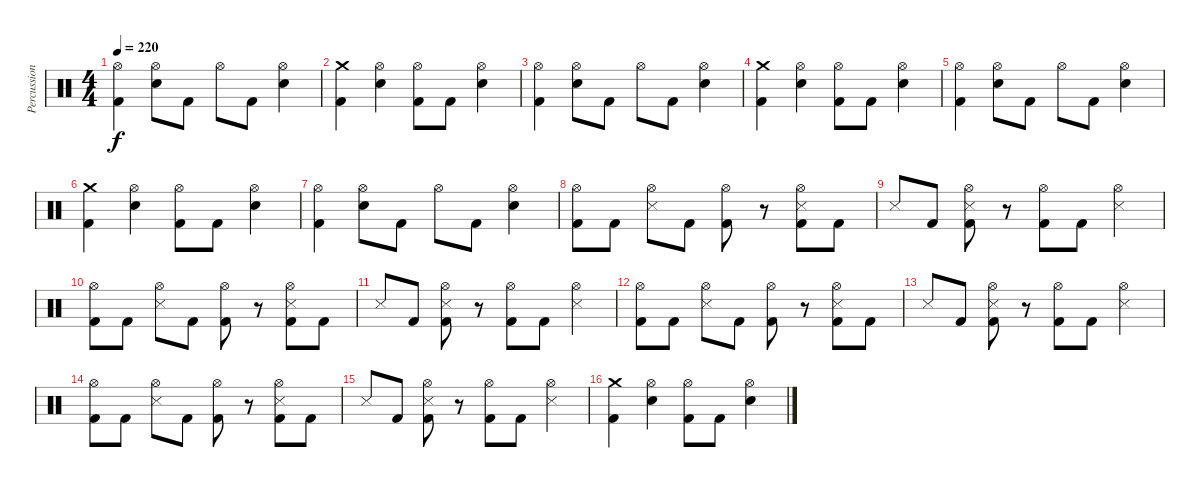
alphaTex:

\track ("Percussions" "Percussion") {instrument percussion}
\staff {score}
\articulation defaults
\ts (4 4)
\tempo 220
\clef neutral
\ks c
("Hi-Hat (open)" "Kick (hit) 2").4{dy f} ("Hi-Hat (open)" "Electric Snare (hit)").8 "Kick (hit) 2".8 "Hi-Hat (open)".8 "Kick (hit) 2".8 ("Hi-Hat (open)" "Electric Snare (hit)").4 |
("Crash medium (hit)" "Kick (hit) 2").4 ("Hi-Hat (open)" "Electric Snare (hit)").4 ("Hi-Hat (open)" "Kick (hit) 2").8 "Kick (hit) 2".8 ("Hi-Hat (open)" "Electric Snare (hit)").4 |
("Hi-Hat (open)" "Kick (hit) 2").4 ("Hi-Hat (open)" "Electric Snare (hit)").8 "Kick (hit) 2".8 "Hi-Hat (open)".8 "Kick (hit) 2".8 ("Hi-Hat (open)" "Electric Snare (hit)").4 |
("Crash medium (hit)" "Kick (hit) 2").4 ("Hi-Hat (open)" "Electric Snare (hit)").4 ("Hi-Hat (open)" "Kick (hit) 2").8 "Kick (hit) 2".8 ("Hi-Hat (open)" "Electric Snare (hit)").4 |
("Hi-Hat (open)" "Kick (hit) 2").4 ("Hi-Hat (open)" "Electric Snare (hit)").8 "Kick (hit) 2".8 "Hi-Hat (open)".8 "Kick (hit) 2".8 ("Hi-Hat (open)" "Electric Snare (hit)").4 |
("Crash medium (hit)" "Kick (hit) 2").4 ("Hi-Hat (open)" "Electric Snare (hit)").4 ("Hi-Hat (open)" "Kick (hit) 2").8 "Kick (hit) 2".8 ("Hi-Hat (open)" "Electric Snare (hit)").4 |
("Hi-Hat (open)" "Kick (hit) 2").4 ("Hi-Hat (open)" "Electric Snare (hit)").8 "Kick (hit) 2".8 "Hi-Hat (open)".8 "Kick (hit) 2".8 ("Hi-Hat (open)" "Electric Snare (hit)").4 |
("Hi-Hat (open)" "Kick (hit) 2").8 "Kick (hit) 2".8 ("Hi-Hat (open)" "Snare (side stick) 3").8 "Kick (hit) 2".8 ("Hi-Hat (open)" "Kick (hit) 2").8 r.8 ("Hi-Hat (open)" "Snare (side stick) 3" "Kick (hit) 2").8 "Kick (hit) 2".8 |
"Snare (side stick) 3".8 "Kick (hit) 2".8 ("Hi-Hat (open)" "Snare (side stick) 3" "Kick (hit) 2").8 r.8 ("Hi-Hat (open)" "Kick (hit) 2").8 "Kick (hit) 2".8 ("Hi-Hat (open)" "Snare (side stick) 3").4 |
("Hi-Hat (open)" "Kick (hit) 2").8 "Kick (hit) 2".8 ("Hi-Hat (open)" "Snare (side stick) 3").8 "Kick (hit) 2".8 ("Hi-Hat (open)" "Kick (hit) 2").8 r.8 ("Hi-Hat (open)" "Snare (side stick) 3" "Kick (hit) 2").8 "Kick (hit) 2".8 |
"Snare (side stick) 3".8 "Kick (hit) 2".8 ("Hi-Hat (open)" "Snare (side stick) 3" "Kick (hit) 2").8 r.8 ("Hi-Hat (open)" "Kick (hit) 2").8 "Kick (hit) 2".8 ("Hi-Hat (open)" "Snare (side stick) 3").4 |
("Hi-Hat (open)" "Kick (hit) 2").8 "Kick (hit) 2".8 ("Hi-Hat (open)" "Snare (side stick) 3").8 "Kick (hit) 2".8 ("Hi-Hat (open)" "Kick (hit) 2").8 r.8 ("Hi-Hat (open)" "Snare (side stick) 3" "Kick (hit) 2").8 "Kick (hit) 2".8 |
"Snare (side stick) 3".8 "Kick (hit) 2".8 ("Hi-Hat (open)" "Snare (side stick) 3" "Kick (hit) 2").8 r.8 ("Hi-Hat (open)" "Kick (hit) 2").8 "Kick (hit) 2".8 ("Hi-Hat (open)" "Snare (side stick) 3").4 |
("Hi-Hat (open)" "Kick (hit) 2").8 "Kick (hit) 2".8 ("Hi-Hat (open)" "Snare (side stick) 3").8 "Kick (hit) 2".8 ("Hi-Hat (open)" "Kick (hit) 2").8 r.8 ("Hi-Hat (open)" "Snare (side stick) 3" "Kick (hit) 2").8 "Kick (hit) 2".8 |
"Snare (side stick) 3".8 "Kick (hit) 2".8 ("Hi-Hat (open)" "Snare (side stick) 3" "Kick (hit) 2").8 r.8 ("Hi-Hat (open)" "Kick (hit) 2").8 "Kick (hit) 2".8 ("Hi-Hat (open)" "Snare (side stick) 3").4 |
("Crash medium (hit)" "Kick (hit) 2").4 ("Hi-Hat (open)" "Electric Snare (hit)").4 ("Hi-Hat (open)" "Kick (hit) 2").8 "Kick (hit) 2".8 ("Hi-Hat (open)" "Electric Snare (hit)").4
